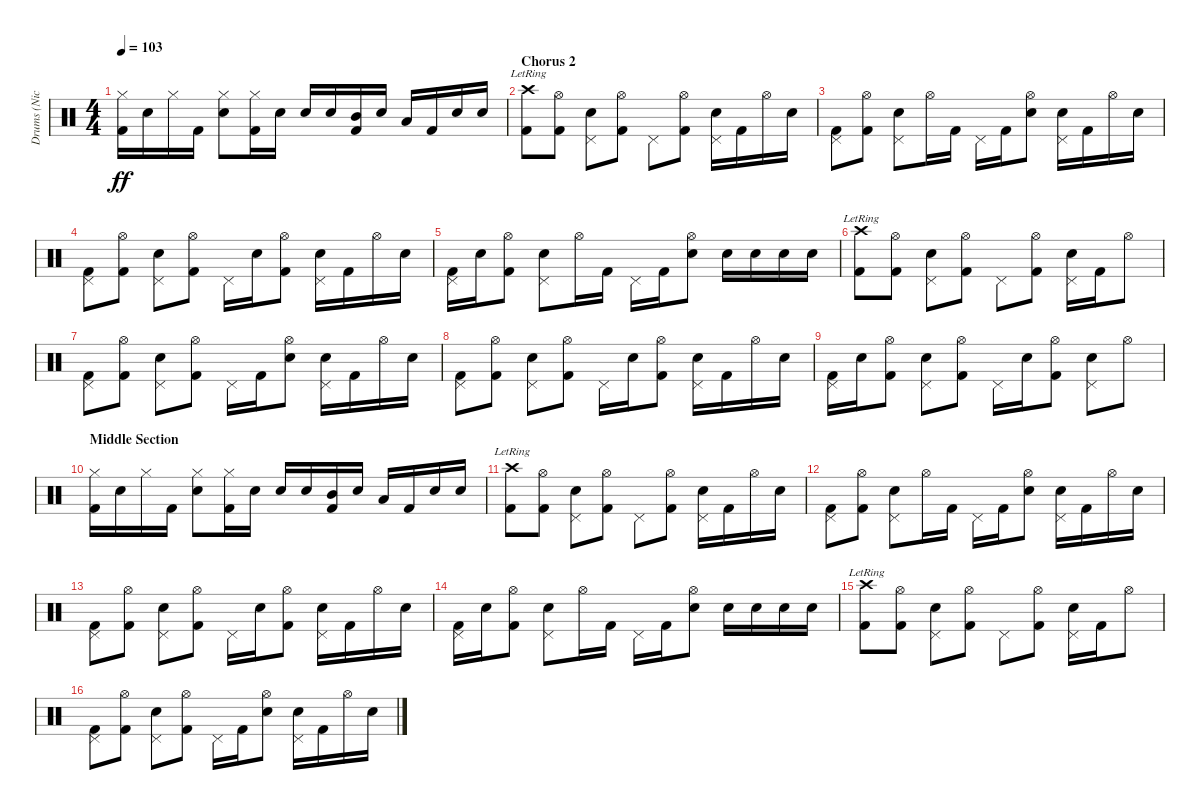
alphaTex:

\track ("Drums (Nick Oshiro)" "Drums (Nic") {instrument percussion}
\staff {score}
\articulation defaults
\ts (4 4)
\tempo 103
\clef neutral
\ks c
("Hi-Hat (closed)" "Kick (hit) 2").16{dy ff} "Snare (hit) 2".16 "Hi-Hat (closed)".16 "Kick (hit) 2".16 ("Hi-Hat (closed)" "Snare (hit) 2").8 ("Hi-Hat (closed)" "Kick (hit) 2").16 "Snare (hit) 2".16 "Snare (hit) 2".16 "Snare (hit) 2".16 ("Mid Tom (hit)" "Kick (hit) 2").16 "Snare (hit) 2".16 "Low Tom (hit)".16 "Kick (hit) 2".16 "Snare (hit) 2".16 "Snare (hit) 2".16 |
\section ("" "Chorus 2")
("Crash high (hit)"{lr} "Kick (hit) 2").8 ("Hi-Hat (open)" "Kick (hit) 2").8 ("Pedal Hi-Hat (hit)" "Snare (hit) 2").8 ("Hi-Hat (open)" "Kick (hit) 2").8 "Pedal Hi-Hat (hit)".8 ("Hi-Hat (open)" "Kick (hit) 2").8 ("Pedal Hi-Hat (hit)" "Snare (hit) 2").16 "Kick (hit) 2".16 "Hi-Hat (open)".16 "Snare (hit) 2".16 |
("Pedal Hi-Hat (hit)" "Kick (hit) 2").8 ("Hi-Hat (open)" "Kick (hit) 2").8 ("Pedal Hi-Hat (hit)" "Snare (hit) 2").8 "Hi-Hat (open)".16 "Kick (hit) 2".16 "Pedal Hi-Hat (hit)".16 "Kick (hit) 2".16 ("Hi-Hat (open)" "Snare (hit) 2").8 ("Pedal Hi-Hat (hit)" "Snare (hit) 2").16 "Kick (hit) 2".16 "Hi-Hat (open)".16 "Snare (hit) 2".16 |
("Pedal Hi-Hat (hit)" "Kick (hit) 2").8 ("Hi-Hat (open)" "Kick (hit) 2").8 ("Pedal Hi-Hat (hit)" "Snare (hit) 2").8 ("Hi-Hat (open)" "Kick (hit) 2").8 "Pedal Hi-Hat (hit)".16 "Snare (hit) 2".16 ("Hi-Hat (open)" "Kick (hit) 2").8 ("Pedal Hi-Hat (hit)" "Snare (hit) 2").16 "Kick (hit) 2".16 "Hi-Hat (open)".16 "Snare (hit) 2".16 |
("Pedal Hi-Hat (hit)" "Kick (hit) 2").16 "Snare (hit) 2".16 ("Hi-Hat (open)" "Kick (hit) 2").8 ("Pedal Hi-Hat (hit)" "Snare (hit) 2").8 "Hi-Hat (open)".16 "Kick (hit) 2".16 "Pedal Hi-Hat (hit)".16 "Kick (hit) 2".16 ("Hi-Hat (open)" "Snare (hit) 2").8 "Snare (hit) 2".16 "Snare (hit) 2".16 "Snare (hit) 2".16 "Snare (hit) 2".16 |
("Crash high (hit)"{lr} "Kick (hit) 2").8 ("Hi-Hat (open)" "Kick (hit) 2").8 ("Pedal Hi-Hat (hit)" "Snare (hit) 2").8 ("Hi-Hat (open)" "Kick (hit) 2").8 "Pedal Hi-Hat (hit)".8 ("Hi-Hat (open)" "Kick (hit) 2").8 ("Pedal Hi-Hat (hit)" "Snare (hit) 2").16 "Kick (hit) 2".16 "Hi-Hat (open)".8 |
("Pedal Hi-Hat (hit)" "Kick (hit) 2").8 ("Hi-Hat (open)" "Kick (hit) 2").8 ("Pedal Hi-Hat (hit)" "Snare (hit) 2").8 ("Hi-Hat (open)" "Kick (hit) 2").8 "Pedal Hi-Hat (hit)".16 "Kick (hit) 2".16 ("Hi-Hat (open)" "Snare (hit) 2").8 ("Pedal Hi-Hat (hit)" "Snare (hit) 2").16 "Kick (hit) 2".16 "Hi-Hat (open)".16 "Snare (hit) 2".16 |
("Pedal Hi-Hat (hit)" "Kick (hit) 2").8 ("Hi-Hat (open)" "Kick (hit) 2").8 ("Pedal Hi-Hat (hit)" "Snare (hit) 2").8 ("Hi-Hat (open)" "Kick (hit) 2").8 "Pedal Hi-Hat (hit)".16 "Snare (hit) 2".16 ("Hi-Hat (open)" "Kick (hit) 2").8 ("Pedal Hi-Hat (hit)" "Snare (hit) 2").16 "Kick (hit) 2".16 "Hi-Hat (open)".16 "Snare (hit) 2".16 |
("Pedal Hi-Hat (hit)" "Kick (hit) 2").16 "Snare (hit) 2".16 ("Hi-Hat (open)" "Kick (hit) 2").8 ("Pedal Hi-Hat (hit)" "Snare (hit) 2").8 ("Hi-Hat (open)" "Kick (hit) 2").8 "Pedal Hi-Hat (hit)".16 "Snare (hit) 2".16 ("Hi-Hat (open)" "Kick (hit) 2").8 ("Pedal Hi-Hat (hit)" "Snare (hit) 2").8 "Hi-Hat (open)".8 |
\section ("" "Middle Section")
("Hi-Hat (closed)" "Kick (hit) 2").16 "Snare (hit) 2".16 "Hi-Hat (closed)".16 "Kick (hit) 2".16 ("Hi-Hat (closed)" "Snare (hit) 2").8 ("Hi-Hat (closed)" "Kick (hit) 2").16 "Snare (hit) 2".16 "Snare (hit) 2".16 "Snare (hit) 2".16 ("Mid Tom (hit)" "Kick (hit) 2").16 "Snare (hit) 2".16 "Low Tom (hit)".16 "Kick (hit) 2".16 "Snare (hit) 2".16 "Snare (hit) 2".16 |
("Crash high (hit)"{lr} "Kick (hit) 2").8 ("Hi-Hat (open)" "Kick (hit) 2").8 ("Pedal Hi-Hat (hit)" "Snare (hit) 2").8 ("Hi-Hat (open)" "Kick (hit) 2").8 "Pedal Hi-Hat (hit)".8 ("Hi-Hat (open)" "Kick (hit) 2").8 ("Pedal Hi-Hat (hit)" "Snare (hit) 2").16 "Kick (hit) 2".16 "Hi-Hat (open)".16 "Snare (hit) 2".16 |
("Pedal Hi-Hat (hit)" "Kick (hit) 2").8 ("Hi-Hat (open)" "Kick (hit) 2").8 ("Pedal Hi-Hat (hit)" "Snare (hit) 2").8 "Hi-Hat (open)".16 "Kick (hit) 2".16 "Pedal Hi-Hat (hit)".16 "Kick (hit) 2".16 ("Hi-Hat (open)" "Snare (hit) 2").8 ("Pedal Hi-Hat (hit)" "Snare (hit) 2").16 "Kick (hit) 2".16 "Hi-Hat (open)".16 "Snare (hit) 2".16 |
("Pedal Hi-Hat (hit)" "Kick (hit) 2").8 ("Hi-Hat (open)" "Kick (hit) 2").8 ("Pedal Hi-Hat (hit)" "Snare (hit) 2").8 ("Hi-Hat (open)" "Kick (hit) 2").8 "Pedal Hi-Hat (hit)".16 "Snare (hit) 2".16 ("Hi-Hat (open)" "Kick (hit) 2").8 ("Pedal Hi-Hat (hit)" "Snare (hit) 2").16 "Kick (hit) 2".16 "Hi-Hat (open)".16 "Snare (hit) 2".16 |
("Pedal Hi-Hat (hit)" "Kick (hit) 2").16 "Snare (hit) 2".16 ("Hi-Hat (open)" "Kick (hit) 2").8 ("Pedal Hi-Hat (hit)" "Snare (hit) 2").8 "Hi-Hat (open)".16 "Kick (hit) 2".16 "Pedal Hi-Hat (hit)".16 "Kick (hit) 2".16 ("Hi-Hat (open)" "Snare (hit) 2").8 "Snare (hit) 2".16 "Snare (hit) 2".16 "Snare (hit) 2".16 "Snare (hit) 2".16 |
("Crash high (hit)"{lr} "Kick (hit) 2").8 ("Hi-Hat (open)" "Kick (hit) 2").8 ("Pedal Hi-Hat (hit)" "Snare (hit) 2").8 ("Hi-Hat (open)" "Kick (hit) 2").8 "Pedal Hi-Hat (hit)".8 ("Hi-Hat (open)" "Kick (hit) 2").8 ("Pedal Hi-Hat (hit)" "Snare (hit) 2").16 "Kick (hit) 2".16 "Hi-Hat (open)".8 |
("Pedal Hi-Hat (hit)" "Kick (hit) 2").8 ("Hi-Hat (open)" "Kick (hit) 2").8 ("Pedal Hi-Hat (hit)" "Snare (hit) 2").8 ("Hi-Hat (open)" "Kick (hit) 2").8 "Pedal Hi-Hat (hit)".16 "Kick (hit) 2".16 ("Hi-Hat (open)" "Snare (hit) 2").8 ("Pedal Hi-Hat (hit)" "Snare (hit) 2").16 "Kick (hit) 2".16 "Hi-Hat (open)".16 "Snare (hit) 2".16
